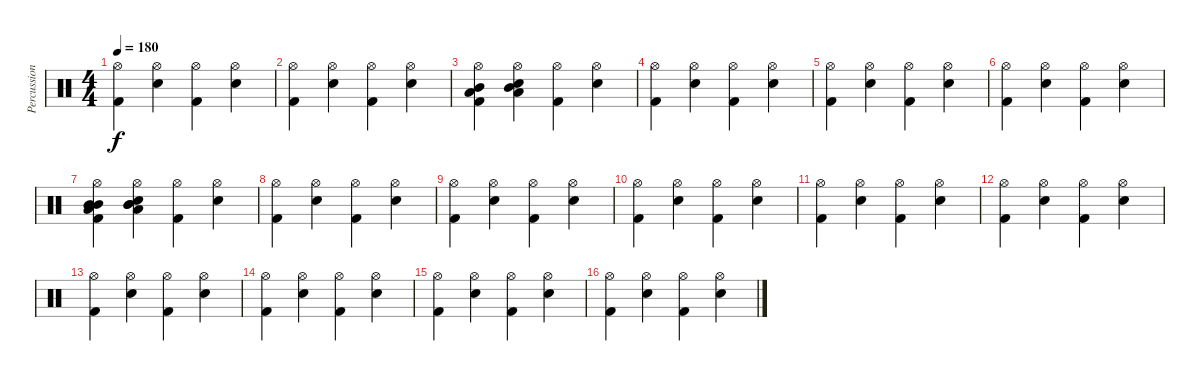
\track ("Percussion" "Percussion") {instrument percussion}
\staff {score}
\articulation defaults
\ts (4 4)
\tempo 180
\clef neutral
\ks c
("Hi-Hat (open)" "Kick (hit) 2").4{dy f} ("Hi-Hat (open)" "Electric Snare (hit)").4 ("Hi-Hat (open)" "Kick (hit) 2").4 ("Hi-Hat (open)" "Electric Snare (hit)").4 |
("Hi-Hat (open)" "Kick (hit) 2").4 ("Hi-Hat (open)" "Electric Snare (hit)").4 ("Hi-Hat (open)" "Kick (hit) 2").4 ("Hi-Hat (open)" "Electric Snare (hit)").4 |
("Mid Tom (hit)" "Low Tom (hit)" "Hi-Hat (open)" "Kick (hit) 2").4 ("Mid Tom (hit)" "Low Tom (hit)" "Hi-Hat (open)" "Electric Snare (hit)").4 ("Hi-Hat (open)" "Kick (hit) 2").4 ("Hi-Hat (open)" "Electric Snare (hit)").4 |
("Hi-Hat (open)" "Kick (hit) 2").4 ("Hi-Hat (open)" "Electric Snare (hit)").4 ("Hi-Hat (open)" "Kick (hit) 2").4 ("Hi-Hat (open)" "Electric Snare (hit)").4 |
("Hi-Hat (open)" "Kick (hit) 2").4 ("Hi-Hat (open)" "Electric Snare (hit)").4 ("Hi-Hat (open)" "Kick (hit) 2").4 ("Hi-Hat (open)" "Electric Snare (hit)").4 |
("Hi-Hat (open)" "Kick (hit) 2").4 ("Hi-Hat (open)" "Electric Snare (hit)").4 ("Hi-Hat (open)" "Kick (hit) 2").4 ("Hi-Hat (open)" "Electric Snare (hit)").4 |
("Low Tom (hit)" "Mid Tom (hit)" "Mid Tom (hit)" "Hi-Hat (open)" "Kick (hit) 2").4 ("Low Tom (hit)" "Mid Tom (hit)" "Mid Tom (hit)" "Hi-Hat (open)" "Electric Snare (hit)").4 ("Hi-Hat (open)" "Kick (hit) 2").4 ("Hi-Hat (open)" "Electric Snare (hit)").4 |
("Hi-Hat (open)" "Kick (hit) 2").4 ("Hi-Hat (open)" "Electric Snare (hit)").4 ("Hi-Hat (open)" "Kick (hit) 2").4 ("Hi-Hat (open)" "Electric Snare (hit)").4 |
("Hi-Hat (open)" "Kick (hit) 2").4 ("Hi-Hat (open)" "Electric Snare (hit)").4 ("Hi-Hat (open)" "Kick (hit) 2").4 ("Hi-Hat (open)" "Electric Snare (hit)").4 |
("Hi-Hat (open)" "Kick (hit) 2").4 ("Hi-Hat (open)" "Electric Snare (hit)").4 ("Hi-Hat (open)" "Kick (hit) 2").4 ("Hi-Hat (open)" "Electric Snare (hit)").4 |
("Hi-Hat (open)" "Kick (hit) 2").4 ("Hi-Hat (open)" "Electric Snare (hit)").4 ("Hi-Hat (open)" "Kick (hit) 2").4 ("Hi-Hat (open)" "Electric Snare (hit)").4 |
("Hi-Hat (open)" "Kick (hit) 2").4 ("Hi-Hat (open)" "Electric Snare (hit)").4 ("Hi-Hat (open)" "Kick (hit) 2").4 ("Hi-Hat (open)" "Electric Snare (hit)").4 |
("Hi-Hat (open)" "Kick (hit) 2").4 ("Hi-Hat (open)" "Electric Snare (hit)").4 ("Hi-Hat (open)" "Kick (hit) 2").4 ("Hi-Hat (open)" "Electric Snare (hit)").4 |
("Hi-Hat (open)" "Kick (hit) 2").4 ("Hi-Hat (open)" "Electric Snare (hit)").4 ("Hi-Hat (open)" "Kick (hit) 2").4 ("Hi-Hat (open)" "Electric Snare (hit)").4 |
("Hi-Hat (open)" "Kick (hit) 2").4 ("Hi-Hat (open)" "Electric Snare (hit)").4 ("Hi-Hat (open)" "Kick (hit) 2").4 ("Hi-Hat (open)" "Electric Snare (hit)").4 |
("Hi-Hat (open)" "Kick (hit) 2").4 ("Hi-Hat (open)" "Electric Snare (hit)").4 ("Hi-Hat (open)" "Kick (hit) 2").4 ("Hi-Hat (open)" "Electric Snare (hit)").4
